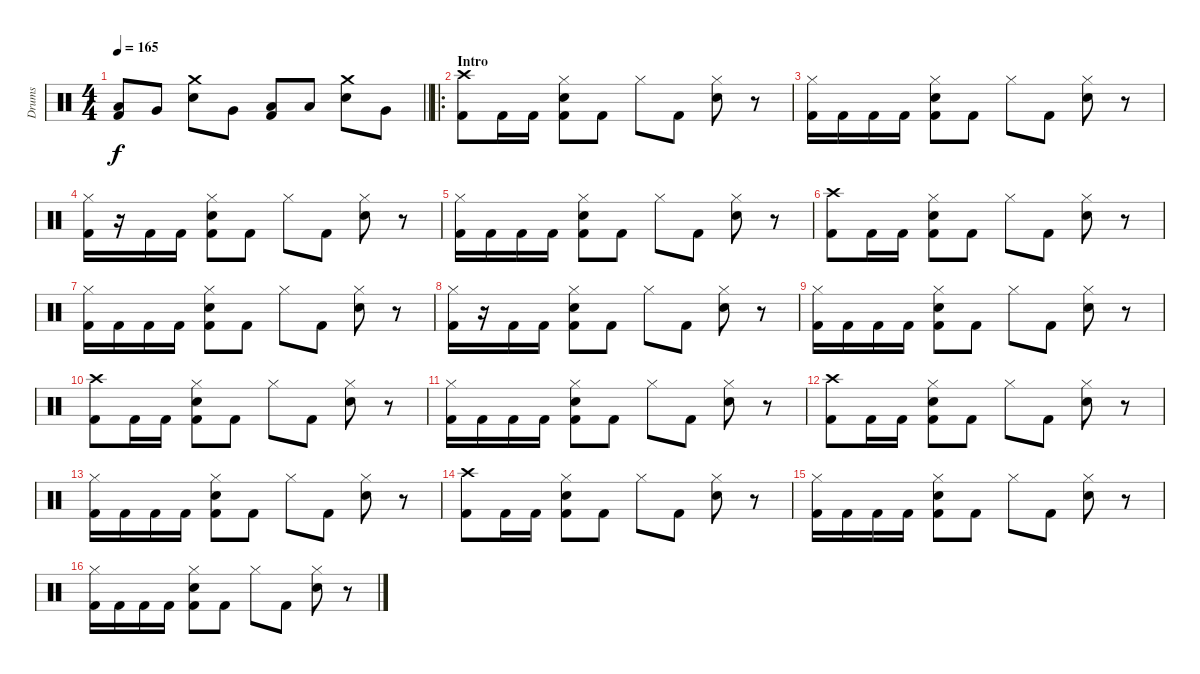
\track ("Drums" "Drums") {instrument percussion}
\staff {score}
\articulation defaults
\ts (4 4)
\tempo 165
\clef neutral
\barLineRight lightlight
\ks c
("Low Tom (hit)" "Kick (hit) 2").8{dy f} "Very Low Tom (hit)".8 ("Crash medium (hit)" "Electric Snare (hit)").8 "Very Low Tom (hit)".8 ("Low Tom (hit)" "Kick (hit) 2").8 "Low Tom (hit)".8 ("Crash medium (hit)" "Electric Snare (hit)").8 "Very Low Tom (hit)".8 |
\ro
\section ("" "Intro")
("Crash high (hit)" "Kick (hit) 2").8 "Kick (hit) 2".16 "Kick (hit) 2".16 ("Hi-Hat (closed)" "Electric Snare (hit)" "Kick (hit) 2").8 "Kick (hit) 2".8 "Hi-Hat (closed)".8 "Kick (hit) 2".8 ("Hi-Hat (closed)" "Electric Snare (hit)").8 r.8 |
("Hi-Hat (closed)" "Kick (hit) 2").16 "Kick (hit) 2".16 "Kick (hit) 2".16 "Kick (hit) 2".16 ("Hi-Hat (closed)" "Electric Snare (hit)" "Kick (hit) 2").8 "Kick (hit) 2".8 "Hi-Hat (closed)".8 "Kick (hit) 2".8 ("Hi-Hat (closed)" "Electric Snare (hit)").8 r.8 |
("Hi-Hat (closed)" "Kick (hit) 2").16 r.16 "Kick (hit) 2".16 "Kick (hit) 2".16 ("Hi-Hat (closed)" "Electric Snare (hit)" "Kick (hit) 2").8 "Kick (hit) 2".8 "Hi-Hat (closed)".8 "Kick (hit) 2".8 ("Hi-Hat (closed)" "Electric Snare (hit)").8 r.8 |
("Hi-Hat (closed)" "Kick (hit) 2").16 "Kick (hit) 2".16 "Kick (hit) 2".16 "Kick (hit) 2".16 ("Hi-Hat (closed)" "Electric Snare (hit)" "Kick (hit) 2").8 "Kick (hit) 2".8 "Hi-Hat (closed)".8 "Kick (hit) 2".8 ("Hi-Hat (closed)" "Electric Snare (hit)").8 r.8 |
("Crash high (hit)" "Kick (hit) 2").8 "Kick (hit) 2".16 "Kick (hit) 2".16 ("Hi-Hat (closed)" "Electric Snare (hit)" "Kick (hit) 2").8 "Kick (hit) 2".8 "Hi-Hat (closed)".8 "Kick (hit) 2".8 ("Hi-Hat (closed)" "Electric Snare (hit)").8 r.8 |
("Hi-Hat (closed)" "Kick (hit) 2").16 "Kick (hit) 2".16 "Kick (hit) 2".16 "Kick (hit) 2".16 ("Hi-Hat (closed)" "Electric Snare (hit)" "Kick (hit) 2").8 "Kick (hit) 2".8 "Hi-Hat (closed)".8 "Kick (hit) 2".8 ("Hi-Hat (closed)" "Electric Snare (hit)").8 r.8 |
("Hi-Hat (closed)" "Kick (hit) 2").16 r.16 "Kick (hit) 2".16 "Kick (hit) 2".16 ("Hi-Hat (closed)" "Electric Snare (hit)" "Kick (hit) 2").8 "Kick (hit) 2".8 "Hi-Hat (closed)".8 "Kick (hit) 2".8 ("Hi-Hat (closed)" "Electric Snare (hit)").8 r.8 |
("Hi-Hat (closed)" "Kick (hit) 2").16 "Kick (hit) 2".16 "Kick (hit) 2".16 "Kick (hit) 2".16 ("Hi-Hat (closed)" "Electric Snare (hit)" "Kick (hit) 2").8 "Kick (hit) 2".8 "Hi-Hat (closed)".8 "Kick (hit) 2".8 ("Hi-Hat (closed)" "Electric Snare (hit)").8 r.8 |
("Crash high (hit)" "Kick (hit) 2").8 "Kick (hit) 2".16 "Kick (hit) 2".16 ("Hi-Hat (closed)" "Electric Snare (hit)" "Kick (hit) 2").8 "Kick (hit) 2".8 "Hi-Hat (closed)".8 "Kick (hit) 2".8 ("Hi-Hat (closed)" "Electric Snare (hit)").8 r.8 |
("Hi-Hat (closed)" "Kick (hit) 2").16 "Kick (hit) 2".16 "Kick (hit) 2".16 "Kick (hit) 2".16 ("Hi-Hat (closed)" "Electric Snare (hit)" "Kick (hit) 2").8 "Kick (hit) 2".8 "Hi-Hat (closed)".8 "Kick (hit) 2".8 ("Hi-Hat (closed)" "Electric Snare (hit)").8 r.8 |
("Crash high (hit)" "Kick (hit) 2").8 "Kick (hit) 2".16 "Kick (hit) 2".16 ("Hi-Hat (closed)" "Electric Snare (hit)" "Kick (hit) 2").8 "Kick (hit) 2".8 "Hi-Hat (closed)".8 "Kick (hit) 2".8 ("Hi-Hat (closed)" "Electric Snare (hit)").8 r.8 |
("Hi-Hat (closed)" "Kick (hit) 2").16 "Kick (hit) 2".16 "Kick (hit) 2".16 "Kick (hit) 2".16 ("Hi-Hat (closed)" "Electric Snare (hit)" "Kick (hit) 2").8 "Kick (hit) 2".8 "Hi-Hat (closed)".8 "Kick (hit) 2".8 ("Hi-Hat (closed)" "Electric Snare (hit)").8 r.8 |
("Crash high (hit)" "Kick (hit) 2").8 "Kick (hit) 2".16 "Kick (hit) 2".16 ("Hi-Hat (closed)" "Electric Snare (hit)" "Kick (hit) 2").8 "Kick (hit) 2".8 "Hi-Hat (closed)".8 "Kick (hit) 2".8 ("Hi-Hat (closed)" "Electric Snare (hit)").8 r.8 |
("Hi-Hat (closed)" "Kick (hit) 2").16 "Kick (hit) 2".16 "Kick (hit) 2".16 "Kick (hit) 2".16 ("Hi-Hat (closed)" "Electric Snare (hit)" "Kick (hit) 2").8 "Kick (hit) 2".8 "Hi-Hat (closed)".8 "Kick (hit) 2".8 ("Hi-Hat (closed)" "Electric Snare (hit)").8 r.8 |
("Hi-Hat (closed)" "Kick (hit) 2").16 "Kick (hit) 2".16 "Kick (hit) 2".16 "Kick (hit) 2".16 ("Hi-Hat (closed)" "Electric Snare (hit)" "Kick (hit) 2").8 "Kick (hit) 2".8 "Hi-Hat (closed)".8 "Kick (hit) 2".8 ("Hi-Hat (closed)" "Electric Snare (hit)").8 r.8
